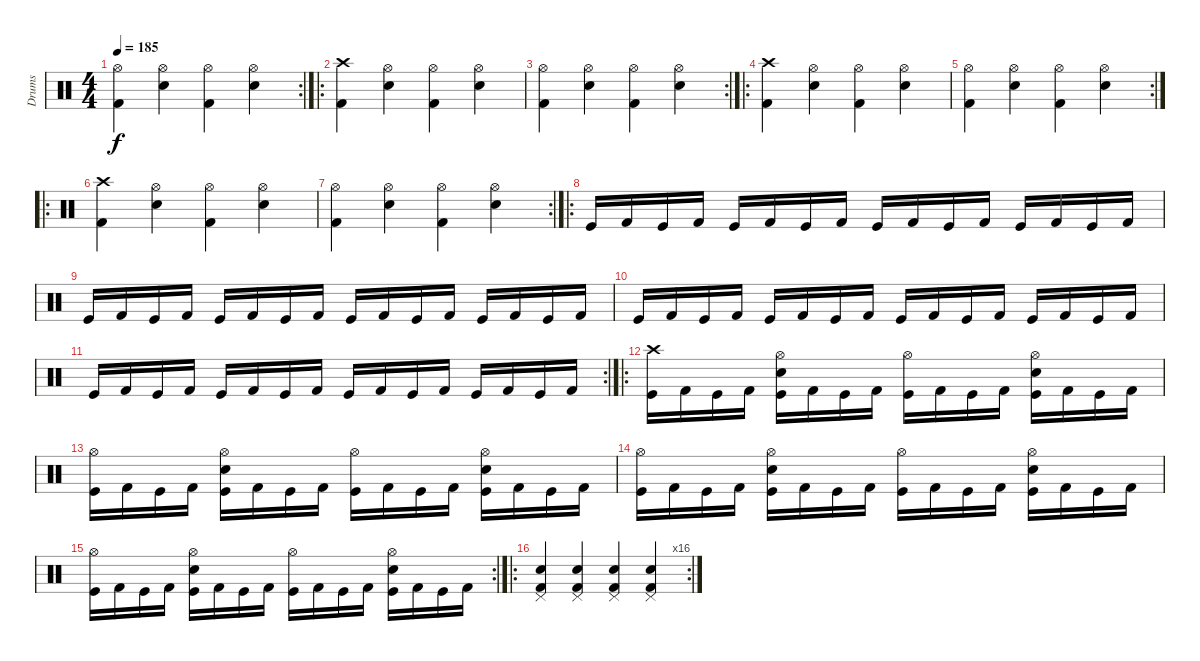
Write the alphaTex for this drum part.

\track ("Drums" "Drums") {instrument percussion}
\staff {score}
\articulation defaults
\rc 2
\ts (4 4)
\tempo 185
\clef neutral
\ks c
("Kick (hit) 2" "Hi-Hat (open)").4{dy f} ("Snare (hit) 2" "Hi-Hat (open)").4 ("Kick (hit) 2" "Hi-Hat (open)").4 ("Snare (hit) 2" "Hi-Hat (open)").4 |
\ro
("Kick (hit) 2" "Crash high (hit)").4 ("Snare (hit) 2" "Hi-Hat (open)").4 ("Kick (hit) 2" "Hi-Hat (open)").4 ("Snare (hit) 2" "Hi-Hat (open)").4 |
\rc 2
("Kick (hit) 2" "Hi-Hat (open)").4 ("Snare (hit) 2" "Hi-Hat (open)").4 ("Kick (hit) 2" "Hi-Hat (open)").4 ("Snare (hit) 2" "Hi-Hat (open)").4 |
\ro
("Kick (hit) 2" "Crash high (hit)").4 ("Snare (hit) 2" "Hi-Hat (open)").4 ("Kick (hit) 2" "Hi-Hat (open)").4 ("Snare (hit) 2" "Hi-Hat (open)").4 |
\rc 2
("Kick (hit) 2" "Hi-Hat (open)").4 ("Snare (hit) 2" "Hi-Hat (open)").4 ("Kick (hit) 2" "Hi-Hat (open)").4 ("Snare (hit) 2" "Hi-Hat (open)").4 |
\ro
("Kick (hit) 2" "Crash high (hit)").4 ("Snare (hit) 2" "Hi-Hat (open)").4 ("Kick (hit) 2" "Hi-Hat (open)").4 ("Snare (hit) 2" "Hi-Hat (open)").4 |
\rc 2
("Kick (hit) 2" "Hi-Hat (open)").4 ("Snare (hit) 2" "Hi-Hat (open)").4 ("Kick (hit) 2" "Hi-Hat (open)").4 ("Snare (hit) 2" "Hi-Hat (open)").4 |
\ro "Kick (hit)".16 "Kick (hit) 2".16 "Kick (hit)".16 "Kick (hit) 2".16 "Kick (hit)".16 "Kick (hit) 2".16 "Kick (hit)".16 "Kick (hit) 2".16 "Kick (hit)".16 "Kick (hit) 2".16 "Kick (hit)".16 "Kick (hit) 2".16 "Kick (hit)".16 "Kick (hit) 2".16 "Kick (hit)".16 "Kick (hit) 2".16
|
"Kick (hit)".16 "Kick (hit) 2".16 "Kick (hit)".16 "Kick (hit) 2".16 "Kick (hit)".16 "Kick (hit) 2".16 "Kick (hit)".16 "Kick (hit) 2".16 "Kick (hit)".16 "Kick (hit) 2".16 "Kick (hit)".16 "Kick (hit) 2".16 "Kick (hit)".16 "Kick (hit) 2".16 "Kick (hit)".16 "Kick (hit) 2".16 |
"Kick (hit)".16 "Kick (hit) 2".16 "Kick (hit)".16 "Kick (hit) 2".16 "Kick (hit)".16 "Kick (hit) 2".16 "Kick (hit)".16 "Kick (hit) 2".16 "Kick (hit)".16 "Kick (hit) 2".16 "Kick (hit)".16 "Kick (hit) 2".16 "Kick (hit)".16 "Kick (hit) 2".16 "Kick (hit)".16 "Kick (hit) 2".16 |
\rc 2 "Kick (hit)".16 "Kick (hit) 2".16 "Kick (hit)".16 "Kick (hit) 2".16 "Kick (hit)".16 "Kick (hit) 2".16 "Kick (hit)".16 "Kick (hit) 2".16 "Kick (hit)".16 "Kick (hit) 2".16 "Kick (hit)".16 "Kick (hit) 2".16 "Kick (hit)".16 "Kick (hit) 2".16 "Kick (hit)".16 "Kick (hit) 2".16
|
\ro
("Kick (hit)" "Crash high (hit)").16 "Kick (hit) 2".16 "Kick (hit)".16 "Kick (hit) 2".16 ("Kick (hit)" "Snare (hit) 2" "Hi-Hat (open)").16 "Kick (hit) 2".16 "Kick (hit)".16 "Kick (hit) 2".16 ("Kick (hit)" "Hi-Hat (open)").16 "Kick (hit) 2".16 "Kick (hit)".16 "Kick (hit) 2".16 ("Kick (hit)" "Snare (hit) 2" "Hi-Hat (open)").16 "Kick (hit) 2".16 "Kick (hit)".16 "Kick (hit) 2".16 |
("Kick (hit)" "Hi-Hat (open)").16 "Kick (hit) 2".16 "Kick (hit)".16 "Kick (hit) 2".16 ("Kick (hit)" "Snare (hit) 2" "Hi-Hat (open)").16 "Kick (hit) 2".16 "Kick (hit)".16 "Kick (hit) 2".16 ("Kick (hit)" "Hi-Hat (open)").16 "Kick (hit) 2".16 "Kick (hit)".16 "Kick (hit) 2".16 ("Kick (hit)" "Snare (hit) 2" "Hi-Hat (open)").16 "Kick (hit) 2".16 "Kick (hit)".16 "Kick (hit) 2".16 |
("Kick (hit)" "Hi-Hat (open)").16 "Kick (hit) 2".16 "Kick (hit)".16 "Kick (hit) 2".16 ("Kick (hit)" "Snare (hit) 2" "Hi-Hat (open)").16 "Kick (hit) 2".16 "Kick (hit)".16 "Kick (hit) 2".16 ("Kick (hit)" "Hi-Hat (open)").16 "Kick (hit) 2".16 "Kick (hit)".16 "Kick (hit) 2".16 ("Kick (hit)" "Snare (hit) 2" "Hi-Hat (open)").16 "Kick (hit) 2".16 "Kick (hit)".16 "Kick (hit) 2".16 |
\rc 2
("Kick (hit)" "Hi-Hat (open)").16 "Kick (hit) 2".16 "Kick (hit)".16 "Kick (hit) 2".16 ("Kick (hit)" "Snare (hit) 2" "Hi-Hat (open)").16 "Kick (hit) 2".16 "Kick (hit)".16 "Kick (hit) 2".16 ("Kick (hit)" "Hi-Hat (open)").16 "Kick (hit) 2".16 "Kick (hit)".16 "Kick (hit) 2".16 ("Kick (hit)" "Snare (hit) 2" "Hi-Hat (open)").16 "Kick (hit) 2".16 "Kick (hit)".16 "Kick (hit) 2".16 |
\ro
\rc 16
("Snare (hit) 2" "Kick (hit) 2" "Pedal Hi-Hat (hit)").4 ("Snare (hit) 2" "Kick (hit) 2" "Pedal Hi-Hat (hit)").4 ("Snare (hit) 2" "Kick (hit) 2" "Pedal Hi-Hat (hit)").4 ("Snare (hit) 2" "Kick (hit) 2" "Pedal Hi-Hat (hit)").4
